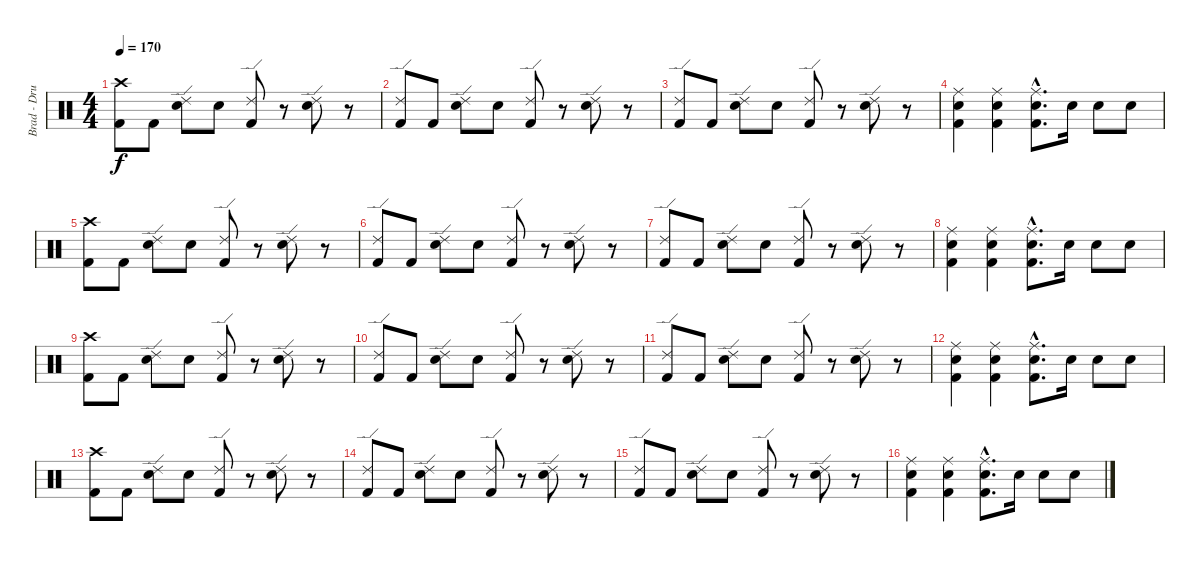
\track ("Brad - Drums" "Brad - Dru") {instrument percussion}
\staff {score}
\articulation defaults
\ts (4 4)
\tempo 170
\clef neutral
\ks c
("Crash high (hit)" "Kick (hit) 2").8{dy f} "Kick (hit) 2".8 ("Ride (edge) 2" "Electric Snare (hit)").8 "Electric Snare (hit)".8 ("Ride (edge) 2" "Kick (hit) 2").8 r.8 ("Ride (edge) 2" "Electric Snare (hit)").8 r.8 |
("Ride (edge) 2" "Kick (hit) 2").8 "Kick (hit) 2".8 ("Ride (edge) 2" "Electric Snare (hit)").8 "Electric Snare (hit)".8 ("Ride (edge) 2" "Kick (hit) 2").8 r.8 ("Ride (edge) 2" "Electric Snare (hit)").8 r.8 |
("Ride (edge) 2" "Kick (hit) 2").8 "Kick (hit) 2".8 ("Ride (edge) 2" "Electric Snare (hit)").8 "Electric Snare (hit)".8 ("Ride (edge) 2" "Kick (hit) 2").8 r.8 ("Ride (edge) 2" "Electric Snare (hit)").8 r.8 |
("Ride (middle)" "Electric Snare (hit)" "Kick (hit) 2").4 ("Ride (middle)" "Electric Snare (hit)" "Kick (hit) 2").4 ("Ride (middle)"{hac} "Electric Snare (hit)"{hac} "Kick (hit) 2"{hac}).8{d} "Electric Snare (hit)".16 "Electric Snare (hit)".8 "Electric Snare (hit)".8 |
("Crash high (hit)" "Kick (hit) 2").8 "Kick (hit) 2".8 ("Ride (edge) 2" "Electric Snare (hit)").8 "Electric Snare (hit)".8 ("Ride (edge) 2" "Kick (hit) 2").8 r.8 ("Ride (edge) 2" "Electric Snare (hit)").8 r.8 |
("Ride (edge) 2" "Kick (hit) 2").8 "Kick (hit) 2".8 ("Ride (edge) 2" "Electric Snare (hit)").8 "Electric Snare (hit)".8 ("Ride (edge) 2" "Kick (hit) 2").8 r.8 ("Ride (edge) 2" "Electric Snare (hit)").8 r.8 |
("Ride (edge) 2" "Kick (hit) 2").8 "Kick (hit) 2".8 ("Ride (edge) 2" "Electric Snare (hit)").8 "Electric Snare (hit)".8 ("Ride (edge) 2" "Kick (hit) 2").8 r.8 ("Ride (edge) 2" "Electric Snare (hit)").8 r.8 |
("Ride (middle)" "Electric Snare (hit)" "Kick (hit) 2").4 ("Ride (middle)" "Electric Snare (hit)" "Kick (hit) 2").4 ("Ride (middle)"{hac} "Electric Snare (hit)"{hac} "Kick (hit) 2"{hac}).8{d} "Electric Snare (hit)".16 "Electric Snare (hit)".8 "Electric Snare (hit)".8 |
("Crash high (hit)" "Kick (hit) 2").8 "Kick (hit) 2".8 ("Ride (edge) 2" "Electric Snare (hit)").8 "Electric Snare (hit)".8 ("Ride (edge) 2" "Kick (hit) 2").8 r.8 ("Ride (edge) 2" "Electric Snare (hit)").8 r.8 |
("Ride (edge) 2" "Kick (hit) 2").8 "Kick (hit) 2".8 ("Ride (edge) 2" "Electric Snare (hit)").8 "Electric Snare (hit)".8 ("Ride (edge) 2" "Kick (hit) 2").8 r.8 ("Ride (edge) 2" "Electric Snare (hit)").8 r.8 |
("Ride (edge) 2" "Kick (hit) 2").8 "Kick (hit) 2".8 ("Ride (edge) 2" "Electric Snare (hit)").8 "Electric Snare (hit)".8 ("Ride (edge) 2" "Kick (hit) 2").8 r.8 ("Ride (edge) 2" "Electric Snare (hit)").8 r.8 |
("Ride (middle)" "Electric Snare (hit)" "Kick (hit) 2").4 ("Ride (middle)" "Electric Snare (hit)" "Kick (hit) 2").4 ("Ride (middle)"{hac} "Electric Snare (hit)"{hac} "Kick (hit) 2"{hac}).8{d} "Electric Snare (hit)".16 "Electric Snare (hit)".8 "Electric Snare (hit)".8 |
("Crash high (hit)" "Kick (hit) 2").8 "Kick (hit) 2".8 ("Ride (edge) 2" "Electric Snare (hit)").8 "Electric Snare (hit)".8 ("Ride (edge) 2" "Kick (hit) 2").8 r.8 ("Ride (edge) 2" "Electric Snare (hit)").8 r.8 |
("Ride (edge) 2" "Kick (hit) 2").8 "Kick (hit) 2".8 ("Ride (edge) 2" "Electric Snare (hit)").8 "Electric Snare (hit)".8 ("Ride (edge) 2" "Kick (hit) 2").8 r.8 ("Ride (edge) 2" "Electric Snare (hit)").8 r.8 |
("Ride (edge) 2" "Kick (hit) 2").8 "Kick (hit) 2".8 ("Ride (edge) 2" "Electric Snare (hit)").8 "Electric Snare (hit)".8 ("Ride (edge) 2" "Kick (hit) 2").8 r.8 ("Ride (edge) 2" "Electric Snare (hit)").8 r.8 |
("Ride (middle)" "Electric Snare (hit)" "Kick (hit) 2").4 ("Ride (middle)" "Electric Snare (hit)" "Kick (hit) 2").4 ("Ride (middle)"{hac} "Electric Snare (hit)"{hac} "Kick (hit) 2"{hac}).8{d} "Electric Snare (hit)".16 "Electric Snare (hit)".8 "Electric Snare (hit)".8
